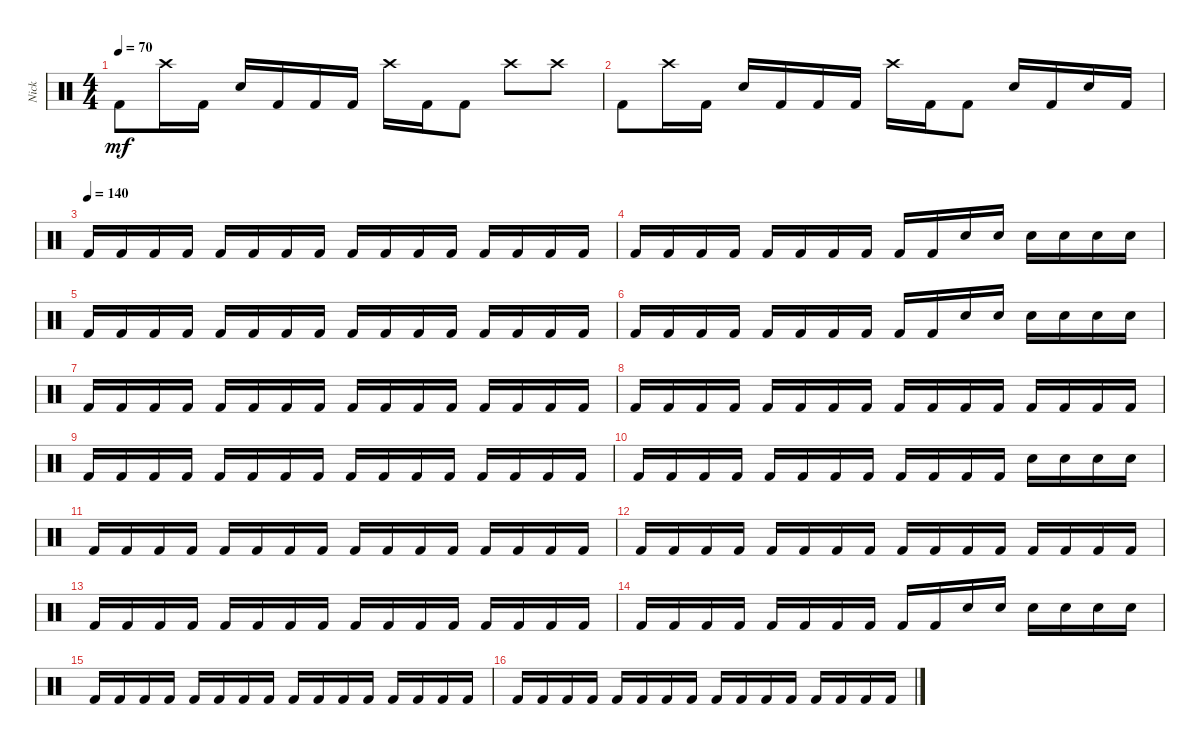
\track ("Nick " "Nick ") {instrument percussion}
\staff {score}
\articulation defaults
\ts (4 4)
\tempo 70
\clef neutral
\ks c "Kick (hit) 2".8{dy mf} "Crash high (hit)".16 "Kick (hit) 2".16 "Snare (hit) 2".16 "Kick (hit) 2".16 "Kick (hit) 2".16 "Kick (hit) 2".16 "Crash high (hit)".16 "Kick (hit) 2".16 "Kick (hit) 2".8 "Crash high (hit)".8 "Crash high (hit)".8
|
"Kick (hit) 2".8 "Crash high (hit)".16 "Kick (hit) 2".16 "Snare (hit) 2".16 "Kick (hit) 2".16 "Kick (hit) 2".16 "Kick (hit) 2".16 "Crash high (hit)".16 "Kick (hit) 2".16 "Kick (hit) 2".8 "Snare (hit) 2".16 "Kick (hit) 2".16 "Snare (hit) 2".16 "Kick (hit) 2".16 |
\tempo (140)
"Kick (hit) 2".16 "Kick (hit) 2".16 "Kick (hit) 2".16 "Kick (hit) 2".16 "Kick (hit) 2".16 "Kick (hit) 2".16 "Kick (hit) 2".16 "Kick (hit) 2".16 "Kick (hit) 2".16 "Kick (hit) 2".16 "Kick (hit) 2".16 "Kick (hit) 2".16 "Kick (hit) 2".16 "Kick (hit) 2".16 "Kick (hit) 2".16 "Kick (hit) 2".16 |
"Kick (hit) 2".16 "Kick (hit) 2".16 "Kick (hit) 2".16 "Kick (hit) 2".16 "Kick (hit) 2".16 "Kick (hit) 2".16 "Kick (hit) 2".16 "Kick (hit) 2".16 "Kick (hit) 2".16 "Kick (hit) 2".16 "Snare (hit) 2".16 "Snare (hit) 2".16 "Snare (hit) 2".16 "Snare (hit) 2".16 "Snare (hit) 2".16 "Snare (hit) 2".16 |
"Kick (hit) 2".16 "Kick (hit) 2".16 "Kick (hit) 2".16 "Kick (hit) 2".16 "Kick (hit) 2".16 "Kick (hit) 2".16 "Kick (hit) 2".16 "Kick (hit) 2".16 "Kick (hit) 2".16 "Kick (hit) 2".16 "Kick (hit) 2".16 "Kick (hit) 2".16 "Kick (hit) 2".16 "Kick (hit) 2".16 "Kick (hit) 2".16 "Kick (hit) 2".16 |
"Kick (hit) 2".16 "Kick (hit) 2".16 "Kick (hit) 2".16 "Kick (hit) 2".16 "Kick (hit) 2".16 "Kick (hit) 2".16 "Kick (hit) 2".16 "Kick (hit) 2".16 "Kick (hit) 2".16 "Kick (hit) 2".16 "Snare (hit) 2".16 "Snare (hit) 2".16 "Snare (hit) 2".16 "Snare (hit) 2".16 "Snare (hit) 2".16 "Snare (hit) 2".16 |
"Kick (hit) 2".16 "Kick (hit) 2".16 "Kick (hit) 2".16 "Kick (hit) 2".16 "Kick (hit) 2".16 "Kick (hit) 2".16 "Kick (hit) 2".16 "Kick (hit) 2".16 "Kick (hit) 2".16 "Kick (hit) 2".16 "Kick (hit) 2".16 "Kick (hit) 2".16 "Kick (hit) 2".16 "Kick (hit) 2".16 "Kick (hit) 2".16 "Kick (hit) 2".16 |
"Kick (hit) 2".16 "Kick (hit) 2".16 "Kick (hit) 2".16 "Kick (hit) 2".16 "Kick (hit) 2".16 "Kick (hit) 2".16 "Kick (hit) 2".16 "Kick (hit) 2".16 "Kick (hit) 2".16 "Kick (hit) 2".16 "Kick (hit) 2".16 "Kick (hit) 2".16 "Kick (hit) 2".16 "Kick (hit) 2".16 "Kick (hit) 2".16 "Kick (hit) 2".16 |
"Kick (hit) 2".16 "Kick (hit) 2".16 "Kick (hit) 2".16 "Kick (hit) 2".16 "Kick (hit) 2".16 "Kick (hit) 2".16 "Kick (hit) 2".16 "Kick (hit) 2".16 "Kick (hit) 2".16 "Kick (hit) 2".16 "Kick (hit) 2".16 "Kick (hit) 2".16 "Kick (hit) 2".16 "Kick (hit) 2".16 "Kick (hit) 2".16 "Kick (hit) 2".16 |
"Kick (hit) 2".16 "Kick (hit) 2".16 "Kick (hit) 2".16 "Kick (hit) 2".16 "Kick (hit) 2".16 "Kick (hit) 2".16 "Kick (hit) 2".16 "Kick (hit) 2".16 "Kick (hit) 2".16 "Kick (hit) 2".16 "Kick (hit) 2".16 "Kick (hit) 2".16 "Snare (hit) 2".16 "Snare (hit) 2".16 "Snare (hit) 2".16 "Snare (hit) 2".16 |
"Kick (hit) 2".16 "Kick (hit) 2".16 "Kick (hit) 2".16 "Kick (hit) 2".16 "Kick (hit) 2".16 "Kick (hit) 2".16 "Kick (hit) 2".16 "Kick (hit) 2".16 "Kick (hit) 2".16 "Kick (hit) 2".16 "Kick (hit) 2".16 "Kick (hit) 2".16 "Kick (hit) 2".16 "Kick (hit) 2".16 "Kick (hit) 2".16 "Kick (hit) 2".16 |
"Kick (hit) 2".16 "Kick (hit) 2".16 "Kick (hit) 2".16 "Kick (hit) 2".16 "Kick (hit) 2".16 "Kick (hit) 2".16 "Kick (hit) 2".16 "Kick (hit) 2".16 "Kick (hit) 2".16 "Kick (hit) 2".16 "Kick (hit) 2".16 "Kick (hit) 2".16 "Kick (hit) 2".16 "Kick (hit) 2".16 "Kick (hit) 2".16 "Kick (hit) 2".16 |
"Kick (hit) 2".16 "Kick (hit) 2".16 "Kick (hit) 2".16 "Kick (hit) 2".16 "Kick (hit) 2".16 "Kick (hit) 2".16 "Kick (hit) 2".16 "Kick (hit) 2".16 "Kick (hit) 2".16 "Kick (hit) 2".16 "Kick (hit) 2".16 "Kick (hit) 2".16 "Kick (hit) 2".16 "Kick (hit) 2".16 "Kick (hit) 2".16 "Kick (hit) 2".16 |
"Kick (hit) 2".16 "Kick (hit) 2".16 "Kick (hit) 2".16 "Kick (hit) 2".16 "Kick (hit) 2".16 "Kick (hit) 2".16 "Kick (hit) 2".16 "Kick (hit) 2".16 "Kick (hit) 2".16 "Kick (hit) 2".16 "Snare (hit) 2".16 "Snare (hit) 2".16 "Snare (hit) 2".16 "Snare (hit) 2".16 "Snare (hit) 2".16 "Snare (hit) 2".16 |
"Kick (hit) 2".16 "Kick (hit) 2".16 "Kick (hit) 2".16 "Kick (hit) 2".16 "Kick (hit) 2".16 "Kick (hit) 2".16 "Kick (hit) 2".16 "Kick (hit) 2".16 "Kick (hit) 2".16 "Kick (hit) 2".16 "Kick (hit) 2".16 "Kick (hit) 2".16 "Kick (hit) 2".16 "Kick (hit) 2".16 "Kick (hit) 2".16 "Kick (hit) 2".16 |
"Kick (hit) 2".16 "Kick (hit) 2".16 "Kick (hit) 2".16 "Kick (hit) 2".16 "Kick (hit) 2".16 "Kick (hit) 2".16 "Kick (hit) 2".16 "Kick (hit) 2".16 "Kick (hit) 2".16 "Kick (hit) 2".16 "Kick (hit) 2".16 "Kick (hit) 2".16 "Kick (hit) 2".16 "Kick (hit) 2".16 "Kick (hit) 2".16 "Kick (hit) 2".16
